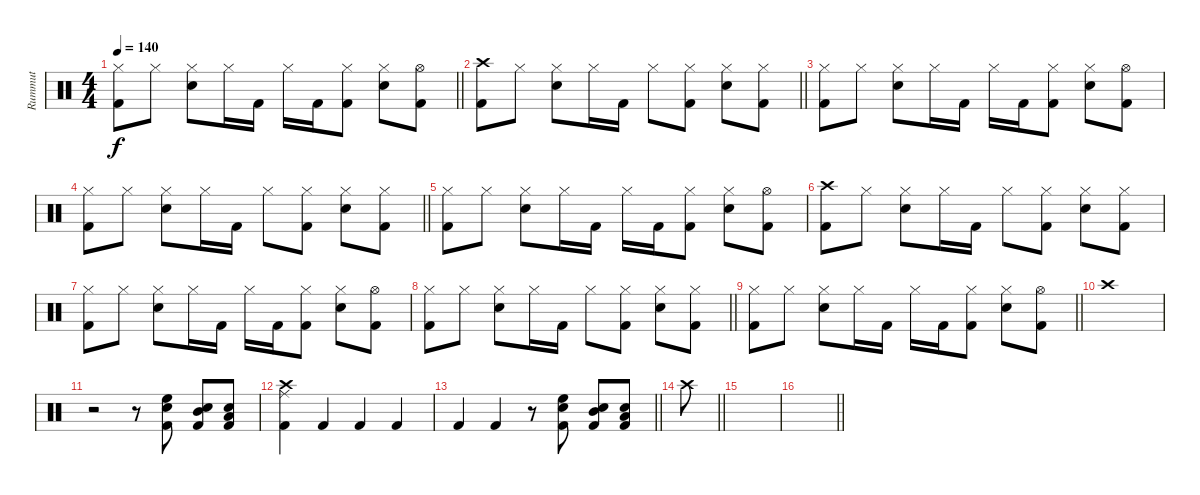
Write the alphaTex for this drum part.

\track ("Rummut" "Rummut") {instrument percussion}
\staff {score}
\articulation defaults
\ts (4 4)
\tempo 140
\clef neutral
\barLineRight lightlight
\ks c
("Hi-Hat (closed)" "Kick (hit) 2").8{dy f} "Hi-Hat (closed)".8 ("Hi-Hat (closed)" "Snare (hit) 2").8 "Hi-Hat (closed)".16 "Kick (hit) 2".16 "Hi-Hat (closed)".16 "Kick (hit) 2".16 ("Hi-Hat (closed)" "Kick (hit) 2").8 ("Hi-Hat (closed)" "Snare (hit) 2").8 ("Hi-Hat (open)" "Kick (hit) 2").8 |
\barLineRight lightlight
("Crash high (hit)" "Kick (hit) 2").8 "Hi-Hat (closed)".8 ("Hi-Hat (closed)" "Snare (hit) 2").8 "Hi-Hat (closed)".16 "Kick (hit) 2".16 "Hi-Hat (closed)".8 ("Hi-Hat (closed)" "Kick (hit) 2").8 ("Hi-Hat (closed)" "Snare (hit) 2").8 ("Hi-Hat (closed)" "Kick (hit) 2").8 |
("Hi-Hat (closed)" "Kick (hit) 2").8 "Hi-Hat (closed)".8 ("Hi-Hat (closed)" "Snare (hit) 2").8 "Hi-Hat (closed)".16 "Kick (hit) 2".16 "Hi-Hat (closed)".16 "Kick (hit) 2".16 ("Hi-Hat (closed)" "Kick (hit) 2").8 ("Hi-Hat (closed)" "Snare (hit) 2").8 ("Hi-Hat (open)" "Kick (hit) 2").8 |
\barLineRight lightlight
("Hi-Hat (closed)" "Kick (hit) 2").8 "Hi-Hat (closed)".8 ("Hi-Hat (closed)" "Snare (hit) 2").8 "Hi-Hat (closed)".16 "Kick (hit) 2".16 "Hi-Hat (closed)".8 ("Hi-Hat (closed)" "Kick (hit) 2").8 ("Hi-Hat (closed)" "Snare (hit) 2").8 ("Hi-Hat (closed)" "Kick (hit) 2").8 |
("Hi-Hat (closed)" "Kick (hit) 2").8 "Hi-Hat (closed)".8 ("Hi-Hat (closed)" "Snare (hit) 2").8 "Hi-Hat (closed)".16 "Kick (hit) 2".16 "Hi-Hat (closed)".16 "Kick (hit) 2".16 ("Hi-Hat (closed)" "Kick (hit) 2").8 ("Hi-Hat (closed)" "Snare (hit) 2").8 ("Hi-Hat (open)" "Kick (hit) 2").8 |
("Crash high (hit)" "Kick (hit) 2").8 "Hi-Hat (closed)".8 ("Hi-Hat (closed)" "Snare (hit) 2").8 "Hi-Hat (closed)".16 "Kick (hit) 2".16 "Hi-Hat (closed)".8 ("Hi-Hat (closed)" "Kick (hit) 2").8 ("Hi-Hat (closed)" "Snare (hit) 2").8 ("Hi-Hat (closed)" "Kick (hit) 2").8 |
("Hi-Hat (closed)" "Kick (hit) 2").8 "Hi-Hat (closed)".8 ("Hi-Hat (closed)" "Snare (hit) 2").8 "Hi-Hat (closed)".16 "Kick (hit) 2".16 "Hi-Hat (closed)".16 "Kick (hit) 2".16 ("Hi-Hat (closed)" "Kick (hit) 2").8 ("Hi-Hat (closed)" "Snare (hit) 2").8 ("Hi-Hat (open)" "Kick (hit) 2").8 |
\barLineRight lightlight
("Hi-Hat (closed)" "Kick (hit) 2").8 "Hi-Hat (closed)".8 ("Hi-Hat (closed)" "Snare (hit) 2").8 "Hi-Hat (closed)".16 "Kick (hit) 2".16 "Hi-Hat (closed)".8 ("Hi-Hat (closed)" "Kick (hit) 2").8 ("Hi-Hat (closed)" "Snare (hit) 2").8 ("Hi-Hat (closed)" "Kick (hit) 2").8 |
\barLineRight lightlight
("Hi-Hat (closed)" "Kick (hit) 2").8 "Hi-Hat (closed)".8 ("Hi-Hat (closed)" "Snare (hit) 2").8 "Hi-Hat (closed)".16 "Kick (hit) 2".16 "Hi-Hat (closed)".16 "Kick (hit) 2".16 ("Hi-Hat (closed)" "Kick (hit) 2").8 ("Hi-Hat (closed)" "Snare (hit) 2").8 ("Hi-Hat (open)" "Kick (hit) 2").8 |
"Crash high (hit)".1 |
r.2 r.8 ("High Floor Tom (hit)" "Snare (hit) 2" "Kick (hit) 2").8 ("Mid Tom (hit)" "Snare (hit) 2" "Kick (hit) 2").8 ("Low Floor Tom (hit)" "Snare (hit) 2" "Kick (hit) 2").8 |
("Crash high (hit)" "Ride (middle)" "Kick (hit) 2").4 "Kick (hit) 2".4 "Kick (hit) 2".4 "Kick (hit) 2".4 |
\barLineRight lightlight "Kick (hit) 2".4 "Kick (hit) 2".4
r.8 ("High Floor Tom (hit)" "Snare (hit) 2" "Kick (hit) 2").8 ("Mid Tom (hit)" "Snare (hit) 2" "Kick (hit) 2").8 ("Low Floor Tom (hit)" "Snare (hit) 2" "Kick (hit) 2").8 |
\barLineRight lightlight "Crash high (hit)".8
|
|
\barLineRight lightlight
